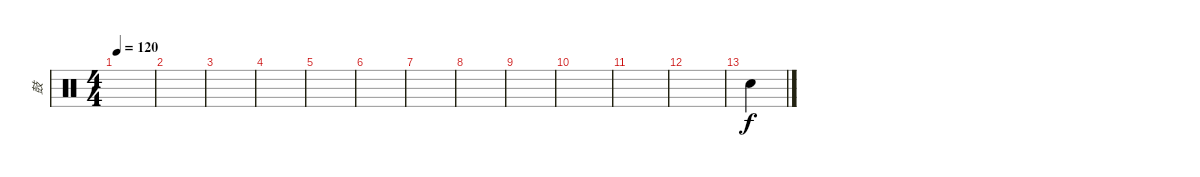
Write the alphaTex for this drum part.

\track ("鼓" "鼓") {instrument percussion}
\staff {score}
\articulation defaults
\ts (4 4)
\tempo 120
\clef neutral
\ks c
|
|
|
|
|
|
|
|
|
|
|
|
"Snare (hit) 2".4
